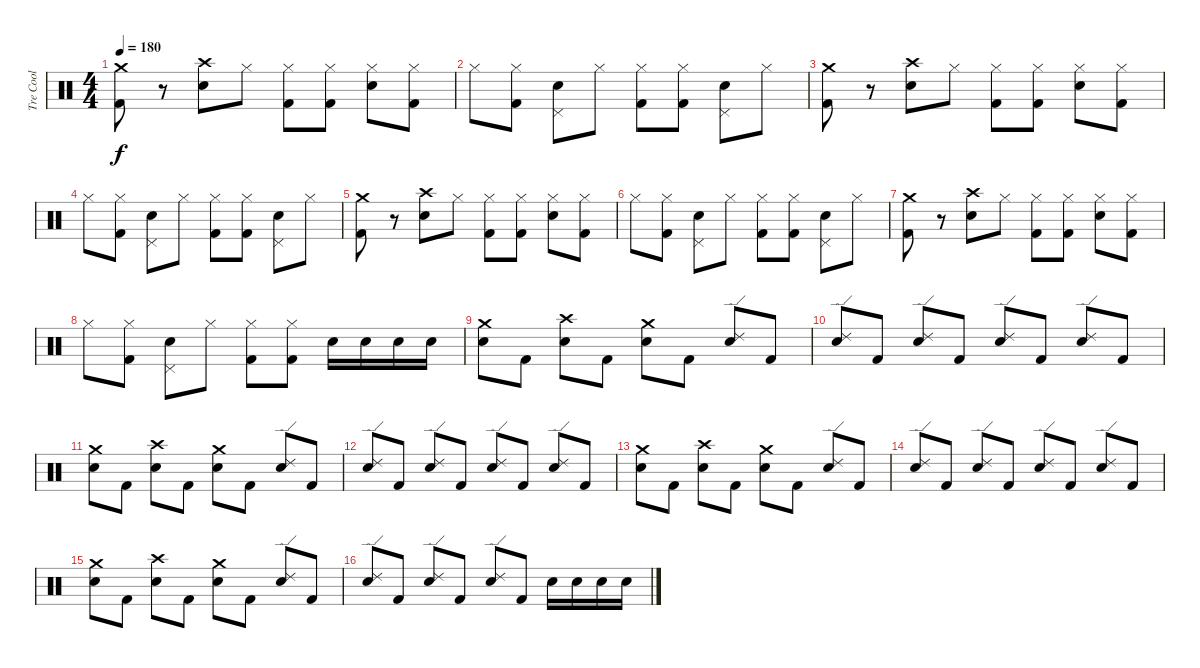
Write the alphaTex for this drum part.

\track ("Tre Cool" "Tre Cool") {instrument percussion}
\staff {score}
\articulation defaults
\ts (4 4)
\tempo 180
\clef neutral
\ks c
("Kick (hit) 2" "Crash medium (hit)").8{dy f} r.8 ("Snare (hit) 2" "Crash high (hit)").8 "Hi-Hat (closed)".8 ("Kick (hit) 2" "Hi-Hat (closed)").8 ("Kick (hit) 2" "Hi-Hat (closed)").8 ("Snare (hit) 2" "Hi-Hat (closed)").8 ("Kick (hit) 2" "Hi-Hat (closed)").8 |
"Hi-Hat (closed)".8 ("Kick (hit) 2" "Hi-Hat (closed)").8 ("Snare (hit) 2" "Pedal Hi-Hat (hit)").8 "Hi-Hat (closed)".8 ("Kick (hit) 2" "Hi-Hat (closed)").8 ("Kick (hit) 2" "Hi-Hat (closed)").8 ("Snare (hit) 2" "Pedal Hi-Hat (hit)").8 "Hi-Hat (closed)".8 |
("Kick (hit) 2" "Crash medium (hit)").8 r.8 ("Snare (hit) 2" "Crash high (hit)").8 "Hi-Hat (closed)".8 ("Kick (hit) 2" "Hi-Hat (closed)").8 ("Kick (hit) 2" "Hi-Hat (closed)").8 ("Snare (hit) 2" "Hi-Hat (closed)").8 ("Kick (hit) 2" "Hi-Hat (closed)").8 |
"Hi-Hat (closed)".8 ("Kick (hit) 2" "Hi-Hat (closed)").8 ("Snare (hit) 2" "Pedal Hi-Hat (hit)").8 "Hi-Hat (closed)".8 ("Kick (hit) 2" "Hi-Hat (closed)").8 ("Kick (hit) 2" "Hi-Hat (closed)").8 ("Snare (hit) 2" "Pedal Hi-Hat (hit)").8 "Hi-Hat (closed)".8 |
("Kick (hit) 2" "Crash medium (hit)").8 r.8 ("Snare (hit) 2" "Crash high (hit)").8 "Hi-Hat (closed)".8 ("Kick (hit) 2" "Hi-Hat (closed)").8 ("Kick (hit) 2" "Hi-Hat (closed)").8 ("Snare (hit) 2" "Hi-Hat (closed)").8 ("Kick (hit) 2" "Hi-Hat (closed)").8 |
"Hi-Hat (closed)".8 ("Kick (hit) 2" "Hi-Hat (closed)").8 ("Snare (hit) 2" "Pedal Hi-Hat (hit)").8 "Hi-Hat (closed)".8 ("Kick (hit) 2" "Hi-Hat (closed)").8 ("Kick (hit) 2" "Hi-Hat (closed)").8 ("Snare (hit) 2" "Pedal Hi-Hat (hit)").8 "Hi-Hat (closed)".8 |
("Kick (hit) 2" "Crash medium (hit)").8 r.8 ("Snare (hit) 2" "Crash high (hit)").8 "Hi-Hat (closed)".8 ("Kick (hit) 2" "Hi-Hat (closed)").8 ("Kick (hit) 2" "Hi-Hat (closed)").8 ("Snare (hit) 2" "Hi-Hat (closed)").8 ("Kick (hit) 2" "Hi-Hat (closed)").8 |
"Hi-Hat (closed)".8 ("Kick (hit) 2" "Hi-Hat (closed)").8 ("Snare (hit) 2" "Pedal Hi-Hat (hit)").8 "Hi-Hat (closed)".8 ("Kick (hit) 2" "Hi-Hat (closed)").8 ("Kick (hit) 2" "Hi-Hat (closed)").8 "Snare (hit) 2".16 "Snare (hit) 2".16 "Snare (hit) 2".16 "Snare (hit) 2".16 |
("Snare (hit) 2" "Crash medium (hit)").8 "Kick (hit) 2".8 ("Snare (hit) 2" "Crash high (hit)").8 "Kick (hit) 2".8 ("Snare (hit) 2" "Crash medium (hit)").8 "Kick (hit) 2".8 ("Snare (hit) 2" "Ride (edge) 2").8 "Kick (hit) 2".8 |
("Snare (hit) 2" "Ride (edge) 2").8 "Kick (hit) 2".8 ("Snare (hit) 2" "Ride (edge) 2").8 "Kick (hit) 2".8 ("Snare (hit) 2" "Ride (edge) 2").8 "Kick (hit) 2".8 ("Snare (hit) 2" "Ride (edge) 2").8 "Kick (hit) 2".8 |
("Snare (hit) 2" "Crash medium (hit)").8 "Kick (hit) 2".8 ("Snare (hit) 2" "Crash high (hit)").8 "Kick (hit) 2".8 ("Snare (hit) 2" "Crash medium (hit)").8 "Kick (hit) 2".8 ("Snare (hit) 2" "Ride (edge) 2").8 "Kick (hit) 2".8 |
("Snare (hit) 2" "Ride (edge) 2").8 "Kick (hit) 2".8 ("Snare (hit) 2" "Ride (edge) 2").8 "Kick (hit) 2".8 ("Snare (hit) 2" "Ride (edge) 2").8 "Kick (hit) 2".8 ("Snare (hit) 2" "Ride (edge) 2").8 "Kick (hit) 2".8 |
("Snare (hit) 2" "Crash medium (hit)").8 "Kick (hit) 2".8 ("Snare (hit) 2" "Crash high (hit)").8 "Kick (hit) 2".8 ("Snare (hit) 2" "Crash medium (hit)").8 "Kick (hit) 2".8 ("Snare (hit) 2" "Ride (edge) 2").8 "Kick (hit) 2".8 |
("Snare (hit) 2" "Ride (edge) 2").8 "Kick (hit) 2".8 ("Snare (hit) 2" "Ride (edge) 2").8 "Kick (hit) 2".8 ("Snare (hit) 2" "Ride (edge) 2").8 "Kick (hit) 2".8 ("Snare (hit) 2" "Ride (edge) 2").8 "Kick (hit) 2".8 |
("Snare (hit) 2" "Crash medium (hit)").8 "Kick (hit) 2".8 ("Snare (hit) 2" "Crash high (hit)").8 "Kick (hit) 2".8 ("Snare (hit) 2" "Crash medium (hit)").8 "Kick (hit) 2".8 ("Snare (hit) 2" "Ride (edge) 2").8 "Kick (hit) 2".8 |
("Snare (hit) 2" "Ride (edge) 2").8 "Kick (hit) 2".8 ("Snare (hit) 2" "Ride (edge) 2").8 "Kick (hit) 2".8 ("Snare (hit) 2" "Ride (edge) 2").8 "Kick (hit) 2".8 "Snare (hit) 2".16 "Snare (hit) 2".16 "Snare (hit) 2".16 "Snare (hit) 2".16
